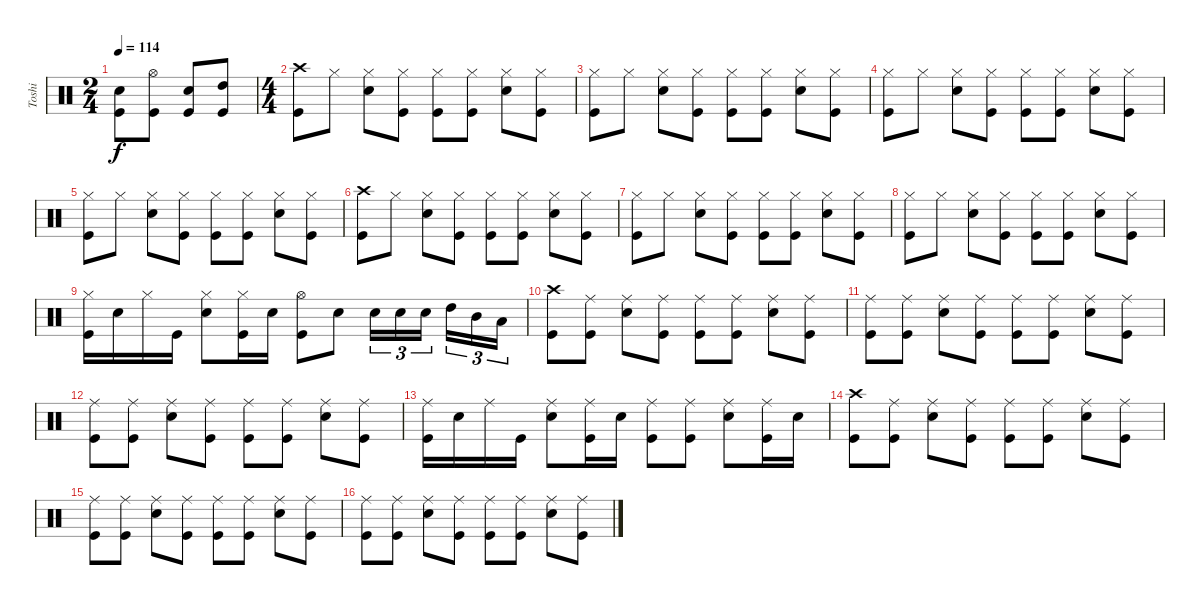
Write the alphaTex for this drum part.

\track ("Toshi" "Toshi") {instrument percussion}
\staff {score}
\articulation defaults
\ts (2 4)
\tempo 114
\clef neutral
\ks c
("Kick (hit)" "Snare (hit) 2").8{dy f} ("Hi-Hat (open)" "Kick (hit)").8 ("Kick (hit)" "Snare (hit) 2").8 ("High Tom (hit)" "Kick (hit)").8 |
\ts (4 4)
("Crash high (hit)" "Kick (hit)").8 "Hi-Hat (closed)".8 ("Hi-Hat (closed)" "Snare (hit) 2").8 ("Hi-Hat (closed)" "Kick (hit)").8 ("Hi-Hat (closed)" "Kick (hit)").8 ("Hi-Hat (closed)" "Kick (hit)").8 ("Hi-Hat (closed)" "Snare (hit) 2").8 ("Hi-Hat (closed)" "Kick (hit)").8 |
("Hi-Hat (closed)" "Kick (hit)").8 "Hi-Hat (closed)".8 ("Hi-Hat (closed)" "Snare (hit) 2").8 ("Hi-Hat (closed)" "Kick (hit)").8 ("Hi-Hat (closed)" "Kick (hit)").8 ("Hi-Hat (closed)" "Kick (hit)").8 ("Hi-Hat (closed)" "Snare (hit) 2").8 ("Hi-Hat (closed)" "Kick (hit)").8 |
("Hi-Hat (closed)" "Kick (hit)").8 "Hi-Hat (closed)".8 ("Hi-Hat (closed)" "Snare (hit) 2").8 ("Hi-Hat (closed)" "Kick (hit)").8 ("Hi-Hat (closed)" "Kick (hit)").8 ("Hi-Hat (closed)" "Kick (hit)").8 ("Hi-Hat (closed)" "Snare (hit) 2").8 ("Hi-Hat (closed)" "Kick (hit)").8 |
("Hi-Hat (closed)" "Kick (hit)").8 "Hi-Hat (closed)".8 ("Hi-Hat (closed)" "Snare (hit) 2").8 ("Hi-Hat (closed)" "Kick (hit)").8 ("Hi-Hat (closed)" "Kick (hit)").8 ("Hi-Hat (closed)" "Kick (hit)").8 ("Hi-Hat (closed)" "Snare (hit) 2").8 ("Hi-Hat (closed)" "Kick (hit)").8 |
("Crash high (hit)" "Kick (hit)").8 "Hi-Hat (closed)".8 ("Hi-Hat (closed)" "Snare (hit) 2").8 ("Hi-Hat (closed)" "Kick (hit)").8 ("Hi-Hat (closed)" "Kick (hit)").8 ("Hi-Hat (closed)" "Kick (hit)").8 ("Hi-Hat (closed)" "Snare (hit) 2").8 ("Hi-Hat (closed)" "Kick (hit)").8 |
("Hi-Hat (closed)" "Kick (hit)").8 "Hi-Hat (closed)".8 ("Hi-Hat (closed)" "Snare (hit) 2").8 ("Hi-Hat (closed)" "Kick (hit)").8 ("Hi-Hat (closed)" "Kick (hit)").8 ("Hi-Hat (closed)" "Kick (hit)").8 ("Hi-Hat (closed)" "Snare (hit) 2").8 ("Hi-Hat (closed)" "Kick (hit)").8 |
("Hi-Hat (closed)" "Kick (hit)").8 "Hi-Hat (closed)".8 ("Hi-Hat (closed)" "Snare (hit) 2").8 ("Hi-Hat (closed)" "Kick (hit)").8 ("Hi-Hat (closed)" "Kick (hit)").8 ("Hi-Hat (closed)" "Kick (hit)").8 ("Hi-Hat (closed)" "Snare (hit) 2").8 ("Hi-Hat (closed)" "Kick (hit)").8 |
("Hi-Hat (closed)" "Kick (hit)").16 "Snare (hit) 2".16 "Hi-Hat (closed)".16 "Kick (hit)".16 ("Hi-Hat (closed)" "Snare (hit) 2").8 ("Hi-Hat (closed)" "Kick (hit)").16 "Snare (hit) 2".16 ("Hi-Hat (open)" "Kick (hit)").8 "Snare (hit) 2".8 "Snare (hit) 2".16{tu (3 2)} "Snare (hit) 2".16{tu (3 2)} "Snare (hit) 2".16{tu (3 2)} "High Tom (hit)".16{tu (3 2)} "Mid Tom (hit)".16{tu (3 2)} "Low Tom (hit)".16{tu (3 2)} |
("Crash high (hit)" "Kick (hit)").8 ("Ride (middle)" "Kick (hit)").8 ("Ride (middle)" "Snare (hit) 2").8 ("Ride (middle)" "Kick (hit)").8 ("Ride (middle)" "Kick (hit)").8 ("Ride (middle)" "Kick (hit)").8 ("Ride (middle)" "Snare (hit) 2").8 ("Ride (middle)" "Kick (hit)").8 |
("Ride (middle)" "Kick (hit)").8 ("Ride (middle)" "Kick (hit)").8 ("Ride (middle)" "Snare (hit) 2").8 ("Ride (middle)" "Kick (hit)").8 ("Ride (middle)" "Kick (hit)").8 ("Ride (middle)" "Kick (hit)").8 ("Ride (middle)" "Snare (hit) 2").8 ("Ride (middle)" "Kick (hit)").8 |
("Ride (middle)" "Kick (hit)").8 ("Ride (middle)" "Kick (hit)").8 ("Ride (middle)" "Snare (hit) 2").8 ("Ride (middle)" "Kick (hit)").8 ("Ride (middle)" "Kick (hit)").8 ("Ride (middle)" "Kick (hit)").8 ("Ride (middle)" "Snare (hit) 2").8 ("Ride (middle)" "Kick (hit)").8 |
("Ride (middle)" "Kick (hit)").16 "Snare (hit) 2".16 "Ride (middle)".16 "Kick (hit)".16 ("Ride (middle)" "Snare (hit) 2").8 ("Ride (middle)" "Kick (hit)").16 "Snare (hit) 2".16 ("Ride (middle)" "Kick (hit)").8 ("Ride (middle)" "Kick (hit)").8 ("Ride (middle)" "Snare (hit) 2").8 ("Ride (middle)" "Kick (hit)").16 "Snare (hit) 2".16 |
("Crash high (hit)" "Kick (hit)").8 ("Ride (middle)" "Kick (hit)").8 ("Ride (middle)" "Snare (hit) 2").8 ("Ride (middle)" "Kick (hit)").8 ("Ride (middle)" "Kick (hit)").8 ("Ride (middle)" "Kick (hit)").8 ("Ride (middle)" "Snare (hit) 2").8 ("Ride (middle)" "Kick (hit)").8 |
("Ride (middle)" "Kick (hit)").8 ("Ride (middle)" "Kick (hit)").8 ("Ride (middle)" "Snare (hit) 2").8 ("Ride (middle)" "Kick (hit)").8 ("Ride (middle)" "Kick (hit)").8 ("Ride (middle)" "Kick (hit)").8 ("Ride (middle)" "Snare (hit) 2").8 ("Ride (middle)" "Kick (hit)").8 |
("Ride (middle)" "Kick (hit)").8 ("Ride (middle)" "Kick (hit)").8 ("Ride (middle)" "Snare (hit) 2").8 ("Ride (middle)" "Kick (hit)").8 ("Ride (middle)" "Kick (hit)").8 ("Ride (middle)" "Kick (hit)").8 ("Ride (middle)" "Snare (hit) 2").8 ("Ride (middle)" "Kick (hit)").8
